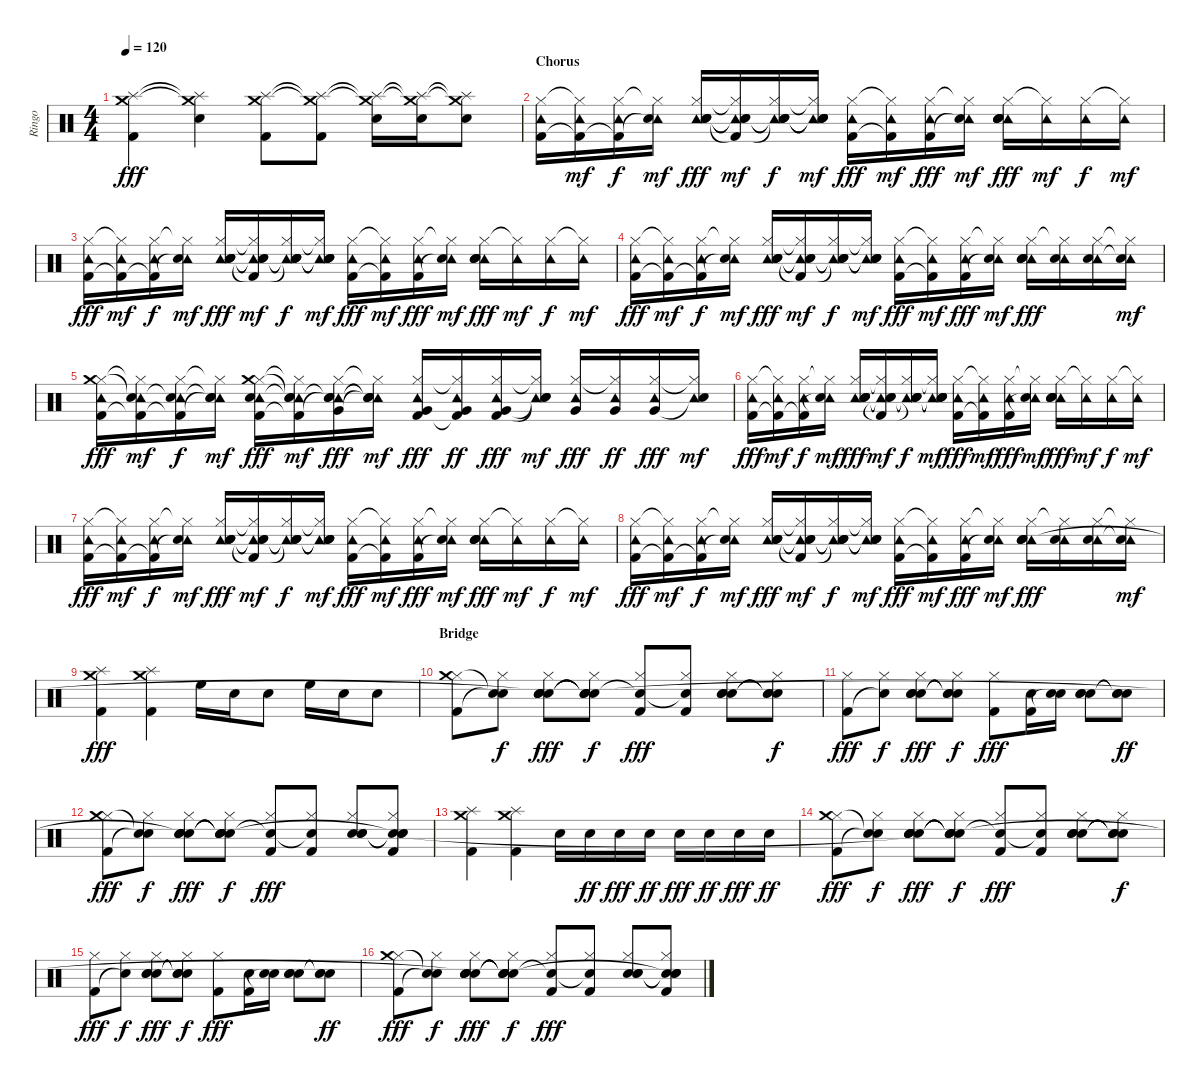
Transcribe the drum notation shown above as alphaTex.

\track ("Ringo" "Ringo") {instrument percussion}
\staff {score}
\articulation defaults
\ts (4 4)
\tempo 120
\clef neutral
\ks c
("Crash medium (hit)" "Splash (hit)" "Kick (hit) 2").4{dy fff} ("Crash medium (hit)"{t} "Splash (hit)"{t} "Electric Snare (hit)").4 ("Crash medium (hit)" "Splash (hit)" "Kick (hit) 2").8 ("Crash medium (hit)"{t} "Splash (hit)"{t} "Kick (hit) 2").8 ("Crash medium (hit)"{t} "Splash (hit)"{t} "Electric Snare (hit)").16 ("Crash medium (hit)"{t} "Splash (hit)"{t} "Electric Snare (hit)").16 ("Crash medium (hit)"{t} "Splash (hit)"{t} "Electric Snare (hit)").8 |
\section ("" "Chorus")
("Tambourine (hit)" "Hi-Hat (closed)" "Kick (hit) 2").16 ("Tambourine (hit)" "Hi-Hat (closed)"{t} "Kick (hit) 2"{t}).16{dy mf} ("Tambourine (hit)" "Hi-Hat (closed)" "Kick (hit) 2"{t}).16{dy f} ("Tambourine (hit)" "Hi-Hat (closed)"{t} "Snare (hit)"{t}).16{dy mf} ("Tambourine (hit)" "Hi-Hat (closed)" "Electric Snare (hit)" "Hand Clap (hit)" "Hand Clap (hit)").16{dy fff} ("Tambourine (hit)" "Hi-Hat (closed)"{t} "Snare (hit)"{t} "Kick (hit) 2"{t} "Snare (hit)"{t}).16{dy mf} ("Tambourine (hit)" "Hi-Hat (closed)" "Electric Snare (hit)"{t} "Snare (hit)"{t} "Hand Clap (hit)"{t}).16{dy f} ("Tambourine (hit)" "Hi-Hat (closed)"{t} "Snare (hit)"{t} "Snare (hit)"{t} "Snare (hit)"{t}).16{dy mf} ("Tambourine (hit)" "Hi-Hat (closed)" "Kick (hit) 2").16{dy fff} ("Tambourine (hit)" "Hi-Hat (closed)"{t} "Kick (hit) 2"{t}).16{dy mf} ("Tambourine (hit)" "Hi-Hat (closed)" "Kick (hit) 2").16{dy fff} ("Tambourine (hit)" "Hi-Hat (closed)"{t} "Snare (hit)"{t}).16{dy mf} ("Tambourine (hit)" "Hi-Hat (closed)" "Electric Snare (hit)" "Hand Clap (hit)" "Hand Clap (hit)").16{dy fff} ("Tambourine (hit)" "Hi-Hat (closed)"{t}).16{dy mf} ("Tambourine (hit)" "Hi-Hat (closed)").16{dy f} ("Tambourine (hit)" "Hi-Hat (closed)"{t}).16{dy mf} |
("Tambourine (hit)" "Hi-Hat (closed)" "Kick (hit) 2").16{dy fff} ("Tambourine (hit)" "Hi-Hat (closed)"{t} "Kick (hit) 2"{t}).16{dy mf} ("Tambourine (hit)" "Hi-Hat (closed)" "Kick (hit) 2"{t}).16{dy f} ("Tambourine (hit)" "Hi-Hat (closed)"{t} "Snare (hit)"{t}).16{dy mf} ("Tambourine (hit)" "Hi-Hat (closed)" "Electric Snare (hit)" "Hand Clap (hit)" "Hand Clap (hit)").16{dy fff} ("Tambourine (hit)" "Hi-Hat (closed)"{t} "Snare (hit)"{t} "Kick (hit) 2"{t} "Snare (hit)"{t}).16{dy mf} ("Tambourine (hit)" "Hi-Hat (closed)" "Electric Snare (hit)"{t} "Snare (hit)"{t} "Hand Clap (hit)"{t}).16{dy f} ("Tambourine (hit)" "Hi-Hat (closed)"{t} "Snare (hit)"{t} "Snare (hit)"{t} "Snare (hit)"{t}).16{dy mf} ("Tambourine (hit)" "Hi-Hat (closed)" "Kick (hit) 2").16{dy fff} ("Tambourine (hit)" "Hi-Hat (closed)"{t} "Kick (hit) 2"{t}).16{dy mf} ("Tambourine (hit)" "Hi-Hat (closed)" "Kick (hit) 2").16{dy fff} ("Tambourine (hit)" "Hi-Hat (closed)"{t} "Snare (hit)"{t}).16{dy mf} ("Tambourine (hit)" "Hi-Hat (closed)" "Electric Snare (hit)" "Hand Clap (hit)" "Hand Clap (hit)").16{dy fff} ("Tambourine (hit)" "Hi-Hat (closed)"{t}).16{dy mf} ("Tambourine (hit)" "Hi-Hat (closed)").16{dy f} ("Tambourine (hit)" "Hi-Hat (closed)"{t}).16{dy mf} |
("Tambourine (hit)" "Hi-Hat (closed)" "Kick (hit) 2").16{dy fff} ("Tambourine (hit)" "Hi-Hat (closed)"{t} "Kick (hit) 2"{t}).16{dy mf} ("Tambourine (hit)" "Hi-Hat (closed)" "Kick (hit) 2"{t}).16{dy f} ("Tambourine (hit)" "Hi-Hat (closed)"{t} "Snare (hit)"{t}).16{dy mf} ("Tambourine (hit)" "Hi-Hat (closed)" "Electric Snare (hit)" "Hand Clap (hit)" "Hand Clap (hit)").16{dy fff} ("Tambourine (hit)" "Hi-Hat (closed)"{t} "Snare (hit)"{t} "Kick (hit) 2"{t} "Snare (hit)"{t}).16{dy mf} ("Tambourine (hit)" "Hi-Hat (closed)" "Electric Snare (hit)"{t} "Snare (hit)"{t} "Hand Clap (hit)"{t}).16{dy f} ("Tambourine (hit)" "Hi-Hat (closed)"{t} "Snare (hit)"{t} "Snare (hit)"{t} "Snare (hit)"{t}).16{dy mf} ("Tambourine (hit)" "Hi-Hat (closed)" "Kick (hit) 2").16{dy fff} ("Tambourine (hit)" "Hi-Hat (closed)"{t} "Kick (hit) 2"{t}).16{dy mf} ("Tambourine (hit)" "Hi-Hat (closed)" "Kick (hit) 2").16{dy fff} ("Tambourine (hit)" "Hi-Hat (closed)"{t} "Snare (hit)"{t}).16{dy mf} ("Tambourine (hit)" "Hi-Hat (closed)" "Electric Snare (hit)" "Hand Clap (hit)" "Hand Clap (hit)").16{dy fff} ("Tambourine (hit)" "Hi-Hat (closed)"{t} "Electric Snare (hit)").16 ("Tambourine (hit)" "Hi-Hat (closed)" "Electric Snare (hit)").16 ("Tambourine (hit)" "Hi-Hat (closed)"{t} "Snare (hit)"{t}).16{dy mf} |
("Tambourine (hit)" "Hi-Hat (closed)" "Kick (hit) 2" "Crash medium (hit)").16{dy fff} ("Tambourine (hit)" "Hi-Hat (closed)"{t} "Kick (hit) 2"{t} "Snare (hit)"{t}).16{dy mf} ("Tambourine (hit)" "Hi-Hat (closed)" "Kick (hit) 2"{t} "Snare (hit)"{t}).16{dy f} ("Tambourine (hit)" "Hi-Hat (closed)"{t} "Snare (hit)"{t} "Snare (hit)"{t}).16{dy mf} ("Tambourine (hit)" "Hi-Hat (closed)" "Electric Snare (hit)" "Kick (hit) 2" "Crash medium (hit)").16{dy fff} ("Tambourine (hit)" "Hi-Hat (closed)"{t} "Snare (hit)"{t} "Kick (hit) 2"{t} "Snare (hit)"{t}).16{dy mf} ("Tambourine (hit)" "Hi-Hat (closed)" "Very Low Tom (hit)" "Snare (hit)"{t} "Snare (hit)"{t}).16{dy fff} ("Tambourine (hit)" "Hi-Hat (closed)"{t} "Snare (hit)"{t} "Snare (hit)"{t} "Snare (hit)"{t}).16{dy mf} ("Tambourine (hit)" "Hi-Hat (closed)" "Very Low Tom (hit)" "Kick (hit) 2").16{dy fff} ("Tambourine (hit)" "Hi-Hat (closed)"{t} "Very Low Tom (hit)" "Kick (hit) 2"{t}).16{dy ff} ("Tambourine (hit)" "Hi-Hat (closed)" "Very Low Tom (hit)" "Kick (hit) 2").16{dy fff} ("Tambourine (hit)" "Hi-Hat (closed)"{t} "Snare (hit)"{t} "Snare (hit)"{t}).16{dy mf} ("Tambourine (hit)" "Hi-Hat (closed)" "Very Low Tom (hit)").16{dy fff} ("Tambourine (hit)" "Hi-Hat (closed)"{t} "Very Low Tom (hit)").16{dy ff} ("Tambourine (hit)" "Hi-Hat (closed)" "Very Low Tom (hit)").16{dy fff} ("Tambourine (hit)" "Hi-Hat (closed)"{t} "Snare (hit)"{t}).16{dy mf} |
("Tambourine (hit)" "Hi-Hat (closed)" "Kick (hit) 2").16{dy fff} ("Tambourine (hit)" "Hi-Hat (closed)"{t} "Kick (hit) 2"{t}).16{dy mf} ("Tambourine (hit)" "Hi-Hat (closed)" "Kick (hit) 2"{t}).16{dy f} ("Tambourine (hit)" "Hi-Hat (closed)"{t} "Snare (hit)"{t}).16{dy mf} ("Tambourine (hit)" "Hi-Hat (closed)" "Electric Snare (hit)" "Hand Clap (hit)" "Hand Clap (hit)").16{dy fff} ("Tambourine (hit)" "Hi-Hat (closed)"{t} "Snare (hit)"{t} "Kick (hit) 2"{t} "Snare (hit)"{t}).16{dy mf} ("Tambourine (hit)" "Hi-Hat (closed)" "Electric Snare (hit)"{t} "Snare (hit)"{t} "Hand Clap (hit)"{t}).16{dy f} ("Tambourine (hit)" "Hi-Hat (closed)"{t} "Snare (hit)"{t} "Snare (hit)"{t} "Snare (hit)"{t}).16{dy mf} ("Tambourine (hit)" "Hi-Hat (closed)" "Kick (hit) 2").16{dy fff} ("Tambourine (hit)" "Hi-Hat (closed)"{t} "Kick (hit) 2"{t}).16{dy mf} ("Tambourine (hit)" "Hi-Hat (closed)" "Kick (hit) 2").16{dy fff} ("Tambourine (hit)" "Hi-Hat (closed)"{t} "Snare (hit)"{t}).16{dy mf} ("Tambourine (hit)" "Hi-Hat (closed)" "Electric Snare (hit)" "Hand Clap (hit)" "Hand Clap (hit)").16{dy fff} ("Tambourine (hit)" "Hi-Hat (closed)"{t}).16{dy mf} ("Tambourine (hit)" "Hi-Hat (closed)").16{dy f} ("Tambourine (hit)" "Hi-Hat (closed)"{t}).16{dy mf} |
("Tambourine (hit)" "Hi-Hat (closed)" "Kick (hit) 2").16{dy fff} ("Tambourine (hit)" "Hi-Hat (closed)"{t} "Kick (hit) 2"{t}).16{dy mf} ("Tambourine (hit)" "Hi-Hat (closed)" "Kick (hit) 2"{t}).16{dy f} ("Tambourine (hit)" "Hi-Hat (closed)"{t} "Snare (hit)"{t}).16{dy mf} ("Tambourine (hit)" "Hi-Hat (closed)" "Electric Snare (hit)" "Hand Clap (hit)" "Hand Clap (hit)").16{dy fff} ("Tambourine (hit)" "Hi-Hat (closed)"{t} "Snare (hit)"{t} "Kick (hit) 2"{t} "Snare (hit)"{t}).16{dy mf} ("Tambourine (hit)" "Hi-Hat (closed)" "Electric Snare (hit)"{t} "Snare (hit)"{t} "Hand Clap (hit)"{t}).16{dy f} ("Tambourine (hit)" "Hi-Hat (closed)"{t} "Snare (hit)"{t} "Snare (hit)"{t} "Snare (hit)"{t}).16{dy mf} ("Tambourine (hit)" "Hi-Hat (closed)" "Kick (hit) 2").16{dy fff} ("Tambourine (hit)" "Hi-Hat (closed)"{t} "Kick (hit) 2"{t}).16{dy mf} ("Tambourine (hit)" "Hi-Hat (closed)" "Kick (hit) 2").16{dy fff} ("Tambourine (hit)" "Hi-Hat (closed)"{t} "Snare (hit)"{t}).16{dy mf} ("Tambourine (hit)" "Hi-Hat (closed)" "Electric Snare (hit)" "Hand Clap (hit)" "Hand Clap (hit)").16{dy fff} ("Tambourine (hit)" "Hi-Hat (closed)"{t}).16{dy mf} ("Tambourine (hit)" "Hi-Hat (closed)").16{dy f} ("Tambourine (hit)" "Hi-Hat (closed)"{t}).16{dy mf} |
("Tambourine (hit)" "Hi-Hat (closed)" "Kick (hit) 2").16{dy fff} ("Tambourine (hit)" "Hi-Hat (closed)"{t} "Kick (hit) 2"{t}).16{dy mf} ("Tambourine (hit)" "Hi-Hat (closed)" "Kick (hit) 2"{t}).16{dy f} ("Tambourine (hit)" "Hi-Hat (closed)"{t} "Snare (hit)"{t}).16{dy mf} ("Tambourine (hit)" "Hi-Hat (closed)" "Electric Snare (hit)" "Hand Clap (hit)" "Hand Clap (hit)").16{dy fff} ("Tambourine (hit)" "Hi-Hat (closed)"{t} "Snare (hit)"{t} "Kick (hit) 2"{t} "Snare (hit)"{t}).16{dy mf} ("Tambourine (hit)" "Hi-Hat (closed)" "Electric Snare (hit)"{t} "Snare (hit)"{t} "Hand Clap (hit)"{t}).16{dy f} ("Tambourine (hit)" "Hi-Hat (closed)"{t} "Snare (hit)"{t} "Snare (hit)"{t} "Snare (hit)"{t}).16{dy mf} ("Tambourine (hit)" "Hi-Hat (closed)" "Kick (hit) 2").16{dy fff} ("Tambourine (hit)" "Hi-Hat (closed)"{t} "Kick (hit) 2"{t}).16{dy mf} ("Tambourine (hit)" "Hi-Hat (closed)" "Kick (hit) 2").16{dy fff} ("Tambourine (hit)" "Hi-Hat (closed)"{t} "Snare (hit)"{t}).16{dy mf} ("Tambourine (hit)" "Hi-Hat (closed)" "Electric Snare (hit)" "Hand Clap (hit)" "Hand Clap (hit)").16{dy fff} ("Tambourine (hit)" "Hi-Hat (closed)"{t} "Electric Snare (hit)").16 ("Tambourine (hit)" "Hi-Hat (closed)" "Electric Snare (hit)").16 ("Tambourine (hit)" "Hi-Hat (closed)"{t} "Snare (hit)"{t}).16{dy mf} |
("Crash medium (hit)" "Splash (hit)" "Kick (hit) 2").4{dy fff} ("Crash medium (hit)" "Splash (hit)" "Kick (hit) 2").4 "High Floor Tom (hit)".16 "Electric Snare (hit)".16 "Electric Snare (hit)".8 "High Floor Tom (hit)".16 "Electric Snare (hit)".16 "Electric Snare (hit)".8 |
\section ("" "Bridge")
("Hi-Hat (closed)" "Kick (hit) 2" "Crash medium (hit)").8 ("Hi-Hat (closed)" "Snare (hit)"{t} "Snare (hit)"{t}).8{dy f} ("Hand Clap (hit)" "Hi-Hat (closed)" "Electric Snare (hit)" "Hand Clap (hit)" "Snare (hit)"{t}).8{dy fff} ("Snare (hit)"{t} "Hi-Hat (closed)" "Snare (hit)"{t} "Snare (hit)"{t} "Snare (hit)"{t}).8{dy f} ("Hi-Hat (closed)" "Kick (hit) 2" "Snare (hit)"{t}).8{dy fff} ("Hi-Hat (closed)" "Kick (hit) 2" "Snare (hit)"{t}).8 ("Hand Clap (hit)" "Hi-Hat (closed)" "Electric Snare (hit)" "Hand Clap (hit)").8 ("Snare (hit)"{t} "Hi-Hat (closed)" "Snare (hit)"{t} "Snare (hit)"{t}).8{dy f} |
("Hi-Hat (closed)" "Kick (hit) 2").8{dy fff} ("Hi-Hat (closed)" "Snare (hit)"{t}).8{dy f} ("Hand Clap (hit)" "Hi-Hat (closed)" "Electric Snare (hit)" "Hand Clap (hit)").8{dy fff} ("Snare (hit)"{t} "Hi-Hat (closed)" "Snare (hit)"{t} "Snare (hit)"{t}).8{dy f} ("Hi-Hat (closed)" "Kick (hit) 2").8{dy fff} ("Electric Snare (hit)" "Kick (hit) 2").16 ("Electric Snare (hit)" "Snare (hit)"{t}).16 ("Hand Clap (hit)" "Electric Snare (hit)" "Hand Clap (hit)").8 ("Snare (hit)"{t} "Electric Snare (hit)" "Snare (hit)"{t}).8{dy ff} |
("Hi-Hat (closed)" "Kick (hit) 2" "Crash medium (hit)").8{dy fff} ("Hi-Hat (closed)" "Snare (hit)"{t} "Snare (hit)"{t}).8{dy f} ("Hand Clap (hit)" "Hi-Hat (closed)" "Electric Snare (hit)" "Hand Clap (hit)" "Snare (hit)"{t}).8{dy fff} ("Snare (hit)"{t} "Hi-Hat (closed)" "Snare (hit)"{t} "Snare (hit)"{t} "Snare (hit)"{t}).8{dy f} ("Hi-Hat (closed)" "Kick (hit) 2" "Snare (hit)"{t}).8{dy fff} ("Hi-Hat (closed)" "Kick (hit) 2" "Snare (hit)"{t}).8 ("Hand Clap (hit)" "Hi-Hat (closed)" "Electric Snare (hit)" "Hand Clap (hit)").8 ("Snare (hit)"{t} "Hi-Hat (closed)" "Snare (hit)"{t} "Kick (hit) 2" "Snare (hit)"{t}).8 |
("Crash medium (hit)" "Splash (hit)" "Kick (hit) 2").4 ("Crash medium (hit)" "Splash (hit)" "Kick (hit) 2").4 "Electric Snare (hit)".16 "Electric Snare (hit)".16{dy ff} "Electric Snare (hit)".16{dy fff} "Electric Snare (hit)".16{dy ff} "Electric Snare (hit)".16{dy fff} "Electric Snare (hit)".16{dy ff} "Electric Snare (hit)".16{dy fff} "Electric Snare (hit)".16{dy ff} |
("Hi-Hat (closed)" "Kick (hit) 2" "Crash medium (hit)").8{dy fff} ("Hi-Hat (closed)" "Snare (hit)"{t} "Snare (hit)"{t}).8{dy f} ("Hand Clap (hit)" "Hi-Hat (closed)" "Electric Snare (hit)" "Hand Clap (hit)" "Snare (hit)"{t}).8{dy fff} ("Snare (hit)"{t} "Hi-Hat (closed)" "Snare (hit)"{t} "Snare (hit)"{t} "Snare (hit)"{t}).8{dy f} ("Hi-Hat (closed)" "Kick (hit) 2" "Snare (hit)"{t}).8{dy fff} ("Hi-Hat (closed)" "Kick (hit) 2" "Snare (hit)"{t}).8 ("Hand Clap (hit)" "Hi-Hat (closed)" "Electric Snare (hit)" "Hand Clap (hit)").8 ("Snare (hit)"{t} "Hi-Hat (closed)" "Snare (hit)"{t} "Snare (hit)"{t}).8{dy f} |
("Hi-Hat (closed)" "Kick (hit) 2").8{dy fff} ("Hi-Hat (closed)" "Snare (hit)"{t}).8{dy f} ("Hand Clap (hit)" "Hi-Hat (closed)" "Electric Snare (hit)" "Hand Clap (hit)").8{dy fff} ("Snare (hit)"{t} "Hi-Hat (closed)" "Snare (hit)"{t} "Snare (hit)"{t}).8{dy f} ("Hi-Hat (closed)" "Kick (hit) 2").8{dy fff} ("Electric Snare (hit)" "Kick (hit) 2").16 ("Electric Snare (hit)" "Snare (hit)"{t}).16 ("Hand Clap (hit)" "Electric Snare (hit)" "Hand Clap (hit)").8 ("Snare (hit)"{t} "Electric Snare (hit)" "Snare (hit)"{t}).8{dy ff} |
("Hi-Hat (closed)" "Kick (hit) 2" "Crash medium (hit)").8{dy fff} ("Hi-Hat (closed)" "Snare (hit)"{t} "Snare (hit)"{t}).8{dy f} ("Hand Clap (hit)" "Hi-Hat (closed)" "Electric Snare (hit)" "Hand Clap (hit)" "Snare (hit)"{t}).8{dy fff} ("Snare (hit)"{t} "Hi-Hat (closed)" "Snare (hit)"{t} "Snare (hit)"{t} "Snare (hit)"{t}).8{dy f} ("Hi-Hat (closed)" "Kick (hit) 2" "Snare (hit)"{t}).8{dy fff} ("Hi-Hat (closed)" "Kick (hit) 2" "Snare (hit)"{t}).8 ("Hand Clap (hit)" "Hi-Hat (closed)" "Electric Snare (hit)" "Hand Clap (hit)").8 ("Snare (hit)"{t} "Hi-Hat (closed)" "Snare (hit)"{t} "Kick (hit) 2" "Snare (hit)"{t}).8
